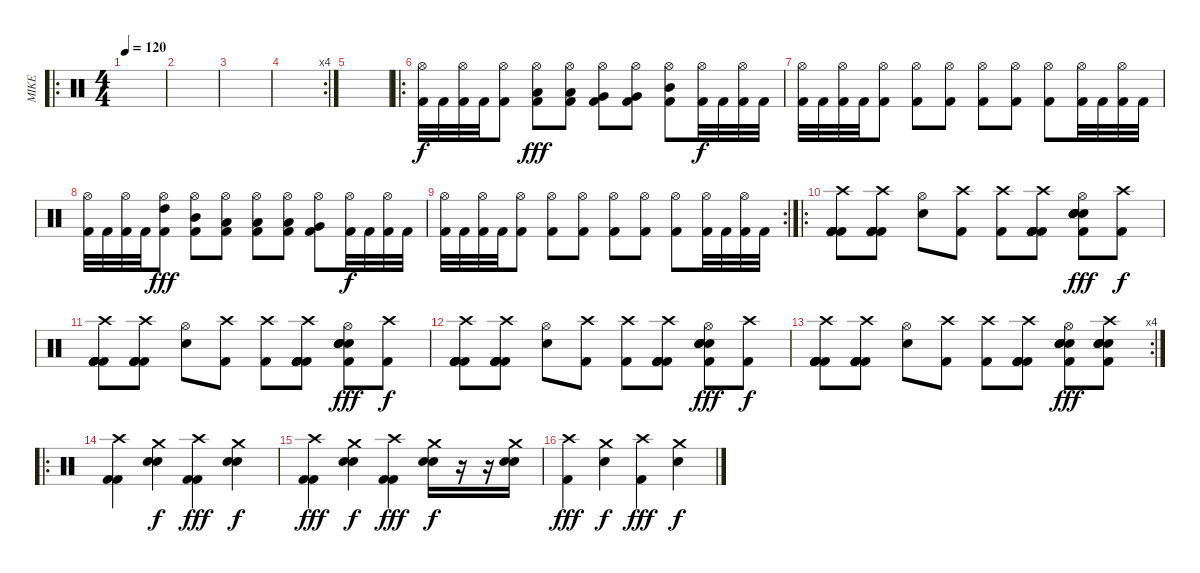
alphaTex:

\track ("MIKE" "MIKE") {instrument percussion}
\staff {score}
\articulation defaults
\ro
\ts (4 4)
\tempo 120
\clef neutral
\ks c
|
|
|
\rc 4
|
|
\ro
("Hi-Hat (open)" "Kick (hit) 2").32 "Kick (hit) 2".32 ("Hi-Hat (open)" "Kick (hit) 2").32 "Kick (hit) 2".32 ("Hi-Hat (open)" "Kick (hit) 2").8 ("Hi-Hat (open)" "Low Tom (hit)" "Kick (hit) 2").8{dy fff} ("Hi-Hat (open)" "Low Tom (hit)" "Kick (hit) 2").8 ("Hi-Hat (open)" "Very Low Tom (hit)" "Kick (hit) 2").8 ("Hi-Hat (open)" "Very Low Tom (hit)" "Kick (hit) 2").8 ("Hi-Hat (open)" "Mid Tom (hit)" "Kick (hit) 2").8 ("Hi-Hat (open)" "Kick (hit) 2").32{dy f} "Kick (hit) 2".32 ("Hi-Hat (open)" "Kick (hit) 2").32 "Kick (hit) 2".32 |
("Hi-Hat (open)" "Kick (hit) 2").32 "Kick (hit) 2".32 ("Hi-Hat (open)" "Kick (hit) 2").32 "Kick (hit) 2".32 ("Hi-Hat (open)" "Kick (hit) 2").8 ("Hi-Hat (open)" "Kick (hit) 2").8 ("Hi-Hat (open)" "Kick (hit) 2").8 ("Hi-Hat (open)" "Kick (hit) 2").8 ("Hi-Hat (open)" "Kick (hit) 2").8 ("Hi-Hat (open)" "Kick (hit) 2").8 ("Hi-Hat (open)" "Kick (hit) 2").32 "Kick (hit) 2".32 ("Hi-Hat (open)" "Kick (hit) 2").32 "Kick (hit) 2".32 |
("Hi-Hat (open)" "Kick (hit) 2").32 "Kick (hit) 2".32 ("Hi-Hat (open)" "Kick (hit) 2").32 "Kick (hit) 2".32 ("Hi-Hat (open)" "High Tom (hit)" "Kick (hit) 2").8{dy fff} ("Hi-Hat (open)" "Mid Tom (hit)" "Kick (hit) 2").8 ("Hi-Hat (open)" "Low Tom (hit)" "Kick (hit) 2").8 ("Hi-Hat (open)" "Low Tom (hit)" "Kick (hit) 2").8 ("Hi-Hat (open)" "Low Tom (hit)" "Kick (hit) 2").8 ("Hi-Hat (open)" "Very Low Tom (hit)" "Kick (hit) 2").8 ("Hi-Hat (open)" "Kick (hit) 2").32{dy f} "Kick (hit) 2".32 ("Hi-Hat (open)" "Kick (hit) 2").32 "Kick (hit) 2".32 |
\rc 2
("Hi-Hat (open)" "Kick (hit) 2").32 "Kick (hit) 2".32 ("Hi-Hat (open)" "Kick (hit) 2").32 "Kick (hit) 2".32 ("Hi-Hat (open)" "Kick (hit) 2").8 ("Hi-Hat (open)" "Kick (hit) 2").8 ("Hi-Hat (open)" "Kick (hit) 2").8 ("Hi-Hat (open)" "Kick (hit) 2").8 ("Hi-Hat (open)" "Kick (hit) 2").8 ("Hi-Hat (open)" "Kick (hit) 2").8 ("Hi-Hat (open)" "Kick (hit) 2").32 "Kick (hit) 2".32 ("Hi-Hat (open)" "Kick (hit) 2").32 "Kick (hit) 2".32 |
\ro
("Crash high (hit)" "Kick (hit) 2" "Kick (hit) 2" "Kick (hit) 2" "Kick (hit) 2" "Kick (hit) 2").8 ("Crash high (hit)" "Kick (hit) 2" "Kick (hit) 2" "Kick (hit) 2" "Kick (hit) 2" "Kick (hit) 2").8 ("Hi-Hat (open)" "Snare (hit) 2").8 ("Crash high (hit)" "Kick (hit) 2").8 ("Crash high (hit)" "Kick (hit) 2").8 ("Crash high (hit)" "Kick (hit) 2" "Kick (hit) 2" "Kick (hit) 2" "Kick (hit) 2" "Kick (hit) 2").8 ("Hi-Hat (open)" "Electric Snare (hit)" "Electric Snare (hit)" "Snare (hit) 2" "Snare (hit) 2" "Kick (hit) 2").8{dy fff} ("Crash high (hit)" "Kick (hit) 2").8{dy f} |
("Crash high (hit)" "Kick (hit) 2" "Kick (hit) 2" "Kick (hit) 2" "Kick (hit) 2" "Kick (hit) 2").8 ("Crash high (hit)" "Kick (hit) 2" "Kick (hit) 2" "Kick (hit) 2" "Kick (hit) 2" "Kick (hit) 2").8 ("Hi-Hat (open)" "Snare (hit) 2").8 ("Crash high (hit)" "Kick (hit) 2").8 ("Crash high (hit)" "Kick (hit) 2").8 ("Crash high (hit)" "Kick (hit) 2" "Kick (hit) 2" "Kick (hit) 2" "Kick (hit) 2" "Kick (hit) 2").8 ("Hi-Hat (open)" "Electric Snare (hit)" "Electric Snare (hit)" "Snare (hit) 2" "Snare (hit) 2" "Kick (hit) 2").8{dy fff} ("Crash high (hit)" "Kick (hit) 2").8{dy f} |
("Crash high (hit)" "Kick (hit) 2" "Kick (hit) 2" "Kick (hit) 2" "Kick (hit) 2" "Kick (hit) 2").8 ("Crash high (hit)" "Kick (hit) 2" "Kick (hit) 2" "Kick (hit) 2" "Kick (hit) 2" "Kick (hit) 2").8 ("Hi-Hat (open)" "Snare (hit) 2").8 ("Crash high (hit)" "Kick (hit) 2").8 ("Crash high (hit)" "Kick (hit) 2").8 ("Crash high (hit)" "Kick (hit) 2" "Kick (hit) 2" "Kick (hit) 2" "Kick (hit) 2" "Kick (hit) 2").8 ("Hi-Hat (open)" "Electric Snare (hit)" "Electric Snare (hit)" "Snare (hit) 2" "Snare (hit) 2" "Kick (hit) 2").8{dy fff} ("Crash high (hit)" "Kick (hit) 2").8{dy f} |
\rc 4
("Crash high (hit)" "Kick (hit) 2" "Kick (hit) 2" "Kick (hit) 2" "Kick (hit) 2" "Kick (hit) 2").8 ("Crash high (hit)" "Kick (hit) 2" "Kick (hit) 2" "Kick (hit) 2" "Kick (hit) 2" "Kick (hit) 2").8 ("Hi-Hat (open)" "Snare (hit) 2").8 ("Crash high (hit)" "Kick (hit) 2").8 ("Crash high (hit)" "Kick (hit) 2").8 ("Crash high (hit)" "Kick (hit) 2" "Kick (hit) 2" "Kick (hit) 2" "Kick (hit) 2" "Kick (hit) 2").8 ("Hi-Hat (open)" "Electric Snare (hit)" "Electric Snare (hit)" "Snare (hit) 2" "Snare (hit) 2" "Kick (hit) 2").8{dy fff} ("Crash high (hit)" "Electric Snare (hit)" "Electric Snare (hit)" "Snare (hit) 2" "Snare (hit) 2" "Kick (hit) 2").8 |
\ro
("Crash high (hit)" "Kick (hit) 2" "Kick (hit) 2").4 ("Crash medium (hit)" "Snare (hit) 2" "Snare (hit) 2").4{dy f} ("Crash high (hit)" "Kick (hit) 2" "Kick (hit) 2").4{dy fff} ("Crash medium (hit)" "Snare (hit) 2" "Snare (hit) 2").4{dy f} |
("Crash high (hit)" "Kick (hit) 2" "Kick (hit) 2").4{dy fff} ("Crash medium (hit)" "Snare (hit) 2" "Snare (hit) 2").4{dy f} ("Crash high (hit)" "Kick (hit) 2" "Kick (hit) 2").4{dy fff} ("Crash medium (hit)" "Snare (hit) 2" "Snare (hit) 2").16{dy f} r.16 r.16 ("Crash medium (hit)" "Snare (hit) 2" "Snare (hit) 2").16 |
("Crash high (hit)" "Kick (hit) 2").4{dy fff} ("Crash medium (hit)" "Snare (hit) 2").4{dy f} ("Crash high (hit)" "Kick (hit) 2").4{dy fff} ("Crash medium (hit)" "Snare (hit) 2").4{dy f}
